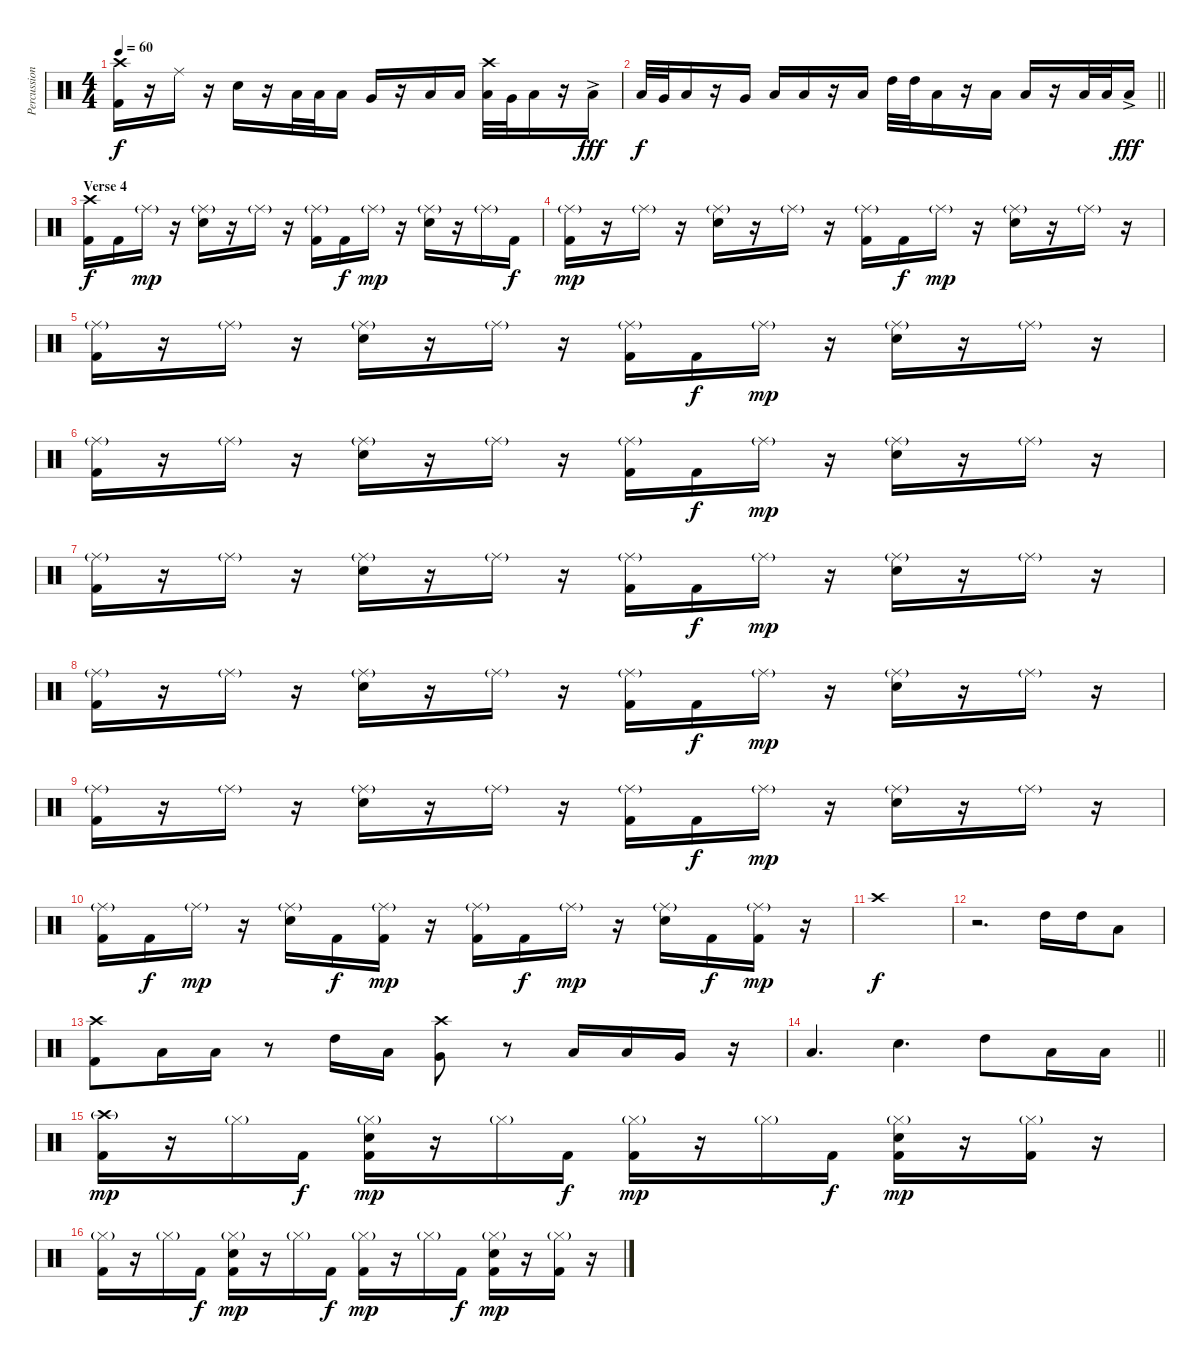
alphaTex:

\track ("Percussion" "Percussion") {instrument percussion}
\staff {score}
\articulation defaults
\ts (4 4)
\tempo 60
\clef neutral
\ks c
("Crash high (hit)" "Kick (hit) 2").16{dy f} r.16 "Ride (middle)".16 r.16 "Snare (hit) 2".16 r.16 "Low Tom (hit)".32{balance 16} "Low Tom (hit)".32 "Low Tom (hit)".16 "Very Low Tom (hit)".16{balance 0} r.16 "Low Tom (hit)".16 "Low Tom (hit)".16 ("Crash high (hit)" "Low Tom (hit)").32{balance 8} "Very Low Tom (hit)".32{balance 16} "Low Floor Tom (hit)".16 r.16 "Low Floor Tom (hit)"{ac}.16{dy fff balance 0} |
\barLineRight lightlight "Low Tom (hit)".32{dy f balance 16} "Very Low Tom (hit)".32 "Low Floor Tom (hit)".16{balance 8}
r.16 "Very Low Tom (hit)".16 "Low Floor Tom (hit)".16{balance 0} "Low Floor Tom (hit)".16{balance 8} r.16 "Low Tom (hit)".16 "High Tom (hit)".32{balance 16} "High Tom (hit)".32 "Low Tom (hit)".16{balance 0} r.16 "Low Tom (hit)".16 "Low Floor Tom (hit)".16{balance 16} r.16 "Low Tom (hit)".32 "Low Tom (hit)".32 "Low Floor Tom (hit)"{ac}.16{dy fff balance 0} |
\section ("" "Verse 4")
("Crash high (hit)" "Kick (hit) 2").16{dy f balance 8} "Kick (hit) 2".16 "Ride (middle)"{g}.16{dy mp} r.16 ("Ride (middle)"{g} "Snare (hit) 2").16 r.16 "Ride (middle)"{g}.16 r.16 ("Ride (middle)"{g} "Kick (hit) 2").16 "Kick (hit) 2".16{dy f} "Ride (middle)"{g}.16{dy mp} r.16 ("Ride (middle)"{g} "Snare (hit) 2").16 r.16 "Ride (middle)"{g}.16 "Kick (hit) 2".16{dy f} |
("Ride (middle)"{g} "Kick (hit) 2").16{dy mp} r.16 "Ride (middle)"{g}.16 r.16 ("Ride (middle)"{g} "Snare (hit) 2").16 r.16 "Ride (middle)"{g}.16 r.16 ("Ride (middle)"{g} "Kick (hit) 2").16 "Kick (hit) 2".16{dy f} "Ride (middle)"{g}.16{dy mp} r.16 ("Ride (middle)"{g} "Snare (hit) 2").16 r.16 "Ride (middle)"{g}.16 r.16 |
("Ride (middle)"{g} "Kick (hit) 2").16 r.16 "Ride (middle)"{g}.16 r.16 ("Ride (middle)"{g} "Snare (hit) 2").16 r.16 "Ride (middle)"{g}.16 r.16 ("Ride (middle)"{g} "Kick (hit) 2").16 "Kick (hit) 2".16{dy f} "Ride (middle)"{g}.16{dy mp} r.16 ("Ride (middle)"{g} "Snare (hit) 2").16 r.16 "Ride (middle)"{g}.16 r.16 |
("Ride (middle)"{g} "Kick (hit) 2").16 r.16 "Ride (middle)"{g}.16 r.16 ("Ride (middle)"{g} "Snare (hit) 2").16 r.16 "Ride (middle)"{g}.16 r.16 ("Ride (middle)"{g} "Kick (hit) 2").16 "Kick (hit) 2".16{dy f} "Ride (middle)"{g}.16{dy mp} r.16 ("Ride (middle)"{g} "Snare (hit) 2").16 r.16 "Ride (middle)"{g}.16 r.16 |
("Ride (middle)"{g} "Kick (hit) 2").16 r.16 "Ride (middle)"{g}.16 r.16 ("Ride (middle)"{g} "Snare (hit) 2").16 r.16 "Ride (middle)"{g}.16 r.16 ("Ride (middle)"{g} "Kick (hit) 2").16 "Kick (hit) 2".16{dy f} "Ride (middle)"{g}.16{dy mp} r.16 ("Ride (middle)"{g} "Snare (hit) 2").16 r.16 "Ride (middle)"{g}.16 r.16 |
("Ride (middle)"{g} "Kick (hit) 2").16 r.16 "Ride (middle)"{g}.16 r.16 ("Ride (middle)"{g} "Snare (hit) 2").16 r.16 "Ride (middle)"{g}.16 r.16 ("Ride (middle)"{g} "Kick (hit) 2").16 "Kick (hit) 2".16{dy f} "Ride (middle)"{g}.16{dy mp} r.16 ("Ride (middle)"{g} "Snare (hit) 2").16 r.16 "Ride (middle)"{g}.16 r.16 |
("Ride (middle)"{g} "Kick (hit) 2").16 r.16 "Ride (middle)"{g}.16 r.16 ("Ride (middle)"{g} "Snare (hit) 2").16 r.16 "Ride (middle)"{g}.16 r.16 ("Ride (middle)"{g} "Kick (hit) 2").16 "Kick (hit) 2".16{dy f} "Ride (middle)"{g}.16{dy mp} r.16 ("Ride (middle)"{g} "Snare (hit) 2").16 r.16 "Ride (middle)"{g}.16 r.16 |
("Ride (middle)"{g} "Kick (hit) 2").16 "Kick (hit) 2".16{dy f} "Ride (middle)"{g}.16{dy mp} r.16 ("Ride (middle)"{g} "Snare (hit) 2").16 "Kick (hit) 2".16{dy f} ("Ride (middle)"{g} "Kick (hit) 2").16{dy mp} r.16 ("Ride (middle)"{g} "Kick (hit) 2").16 "Kick (hit) 2".16{dy f} "Ride (middle)"{g}.16{dy mp} r.16 ("Ride (middle)"{g} "Snare (hit) 2").16 "Kick (hit) 2".16{dy f} ("Ride (middle)"{g} "Kick (hit) 2").16{dy mp} r.16 |
"Crash high (hit)".1{dy f} |
r.2{d} "High Tom (hit)".16{balance 16} "High Tom (hit)".16 "Low Tom (hit)".8{balance 0} |
("Crash high (hit)" "Kick (hit) 2").8{balance 8} "Low Tom (hit)".16{balance 16} "Low Tom (hit)".16 r.8{balance 8} "High Tom (hit)".16{balance 0} "Low Tom (hit)".16{balance 4} ("Crash high (hit)" "Very Low Tom (hit)").8{balance 8} r.8 "Low Tom (hit)".16{balance 16} "Low Tom (hit)".16{balance 4} "Very Low Tom (hit)".16{balance 0} r.16 |
\barLineRight lightlight "Low Tom (hit)".4{d balance 8} "Snare (hit) 2".4{d} "High Tom (hit)".8{balance 16} "Low Tom (hit)".16{balance 5} "Low Floor Tom (hit)".16
|
("Crash high (hit)"{g} "Kick (hit) 2").16{dy mp} r.16 "Hi-Hat (closed)"{g}.16 "Kick (hit) 2".16{dy f} ("Hi-Hat (closed)"{g} "Snare (hit) 2" "Kick (hit) 2").16{dy mp} r.16 "Hi-Hat (closed)"{g}.16 "Kick (hit) 2".16{dy f} ("Hi-Hat (closed)"{g} "Kick (hit) 2").16{dy mp} r.16 "Hi-Hat (closed)"{g}.16 "Kick (hit) 2".16{dy f} ("Hi-Hat (closed)"{g} "Snare (hit) 2" "Kick (hit) 2").16{dy mp} r.16 ("Hi-Hat (closed)"{g} "Kick (hit) 2").16 r.16 |
("Hi-Hat (closed)"{g} "Kick (hit) 2").16 r.16 "Hi-Hat (closed)"{g}.16 "Kick (hit) 2".16{dy f} ("Hi-Hat (closed)"{g} "Snare (hit) 2" "Kick (hit) 2").16{dy mp} r.16 "Hi-Hat (closed)"{g}.16 "Kick (hit) 2".16{dy f} ("Hi-Hat (closed)"{g} "Kick (hit) 2").16{dy mp} r.16 "Hi-Hat (closed)"{g}.16 "Kick (hit) 2".16{dy f} ("Hi-Hat (closed)"{g} "Snare (hit) 2" "Kick (hit) 2").16{dy mp} r.16 ("Hi-Hat (closed)"{g} "Kick (hit) 2").16 r.16
